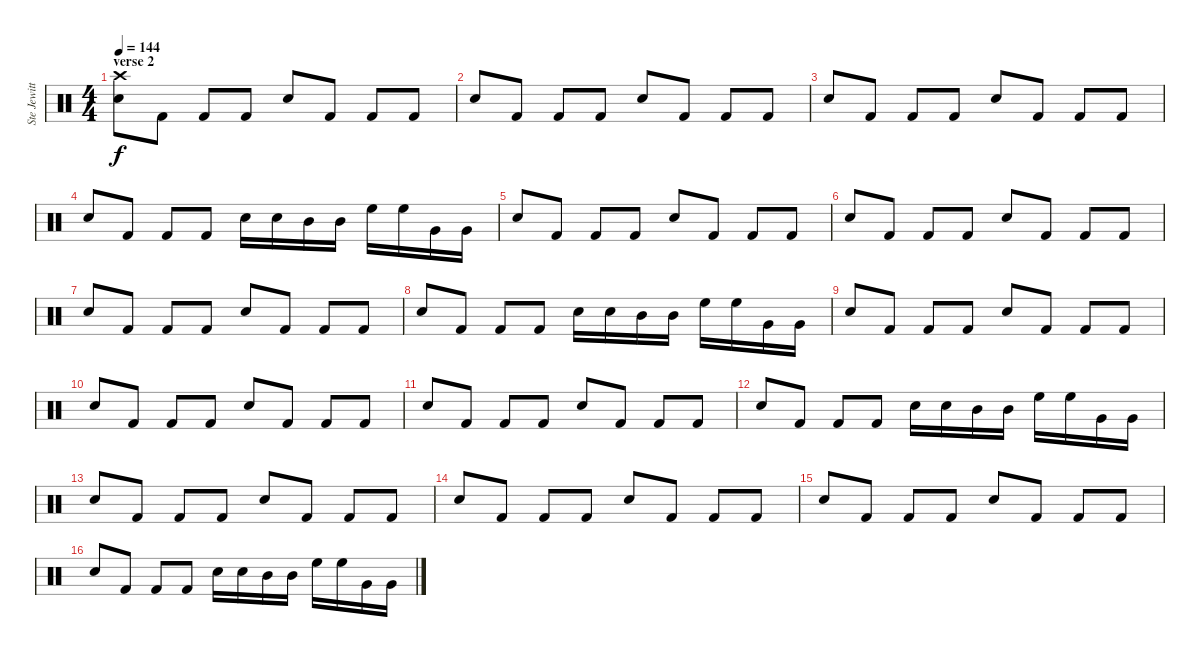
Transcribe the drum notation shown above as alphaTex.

\track ("Ste Jewitt (Drummer)" "Ste Jewitt") {instrument percussion}
\staff {score}
\articulation defaults
\ts (4 4)
\section ("" "verse 2")
\tempo 144
\clef neutral
\ks c
("Crash high (hit)" "Snare (hit) 2").8{dy f} "Kick (hit) 2".8 "Kick (hit) 2".8 "Kick (hit) 2".8 "Snare (hit) 2".8 "Kick (hit) 2".8 "Kick (hit) 2".8 "Kick (hit) 2".8 |
"Snare (hit) 2".8 "Kick (hit) 2".8 "Kick (hit) 2".8 "Kick (hit) 2".8 "Snare (hit) 2".8 "Kick (hit) 2".8 "Kick (hit) 2".8 "Kick (hit) 2".8 |
"Snare (hit) 2".8 "Kick (hit) 2".8 "Kick (hit) 2".8 "Kick (hit) 2".8 "Snare (hit) 2".8 "Kick (hit) 2".8 "Kick (hit) 2".8 "Kick (hit) 2".8 |
"Snare (hit) 2".8 "Kick (hit) 2".8 "Kick (hit) 2".8 "Kick (hit) 2".8 "Snare (hit) 2".16 "Snare (hit) 2".16 "Mid Tom (hit)".16 "Mid Tom (hit)".16 "High Floor Tom (hit)".16 "High Floor Tom (hit)".16 "Very Low Tom (hit)".16 "Very Low Tom (hit)".16 |
"Snare (hit) 2".8 "Kick (hit) 2".8 "Kick (hit) 2".8 "Kick (hit) 2".8 "Snare (hit) 2".8 "Kick (hit) 2".8 "Kick (hit) 2".8 "Kick (hit) 2".8 |
"Snare (hit) 2".8 "Kick (hit) 2".8 "Kick (hit) 2".8 "Kick (hit) 2".8 "Snare (hit) 2".8 "Kick (hit) 2".8 "Kick (hit) 2".8 "Kick (hit) 2".8 |
"Snare (hit) 2".8 "Kick (hit) 2".8 "Kick (hit) 2".8 "Kick (hit) 2".8 "Snare (hit) 2".8 "Kick (hit) 2".8 "Kick (hit) 2".8 "Kick (hit) 2".8 |
"Snare (hit) 2".8 "Kick (hit) 2".8 "Kick (hit) 2".8 "Kick (hit) 2".8 "Snare (hit) 2".16 "Snare (hit) 2".16 "Mid Tom (hit)".16 "Mid Tom (hit)".16 "High Floor Tom (hit)".16 "High Floor Tom (hit)".16 "Very Low Tom (hit)".16 "Very Low Tom (hit)".16 |
"Snare (hit) 2".8 "Kick (hit) 2".8 "Kick (hit) 2".8 "Kick (hit) 2".8 "Snare (hit) 2".8 "Kick (hit) 2".8 "Kick (hit) 2".8 "Kick (hit) 2".8 |
"Snare (hit) 2".8 "Kick (hit) 2".8 "Kick (hit) 2".8 "Kick (hit) 2".8 "Snare (hit) 2".8 "Kick (hit) 2".8 "Kick (hit) 2".8 "Kick (hit) 2".8 |
"Snare (hit) 2".8 "Kick (hit) 2".8 "Kick (hit) 2".8 "Kick (hit) 2".8 "Snare (hit) 2".8 "Kick (hit) 2".8 "Kick (hit) 2".8 "Kick (hit) 2".8 |
"Snare (hit) 2".8 "Kick (hit) 2".8 "Kick (hit) 2".8 "Kick (hit) 2".8 "Snare (hit) 2".16 "Snare (hit) 2".16 "Mid Tom (hit)".16 "Mid Tom (hit)".16 "High Floor Tom (hit)".16 "High Floor Tom (hit)".16 "Very Low Tom (hit)".16 "Very Low Tom (hit)".16 |
"Snare (hit) 2".8 "Kick (hit) 2".8 "Kick (hit) 2".8 "Kick (hit) 2".8 "Snare (hit) 2".8 "Kick (hit) 2".8 "Kick (hit) 2".8 "Kick (hit) 2".8 |
"Snare (hit) 2".8 "Kick (hit) 2".8 "Kick (hit) 2".8 "Kick (hit) 2".8 "Snare (hit) 2".8 "Kick (hit) 2".8 "Kick (hit) 2".8 "Kick (hit) 2".8 |
"Snare (hit) 2".8 "Kick (hit) 2".8 "Kick (hit) 2".8 "Kick (hit) 2".8 "Snare (hit) 2".8 "Kick (hit) 2".8 "Kick (hit) 2".8 "Kick (hit) 2".8 |
"Snare (hit) 2".8 "Kick (hit) 2".8 "Kick (hit) 2".8 "Kick (hit) 2".8 "Snare (hit) 2".16 "Snare (hit) 2".16 "Mid Tom (hit)".16 "Mid Tom (hit)".16 "High Floor Tom (hit)".16 "High Floor Tom (hit)".16 "Very Low Tom (hit)".16 "Very Low Tom (hit)".16
